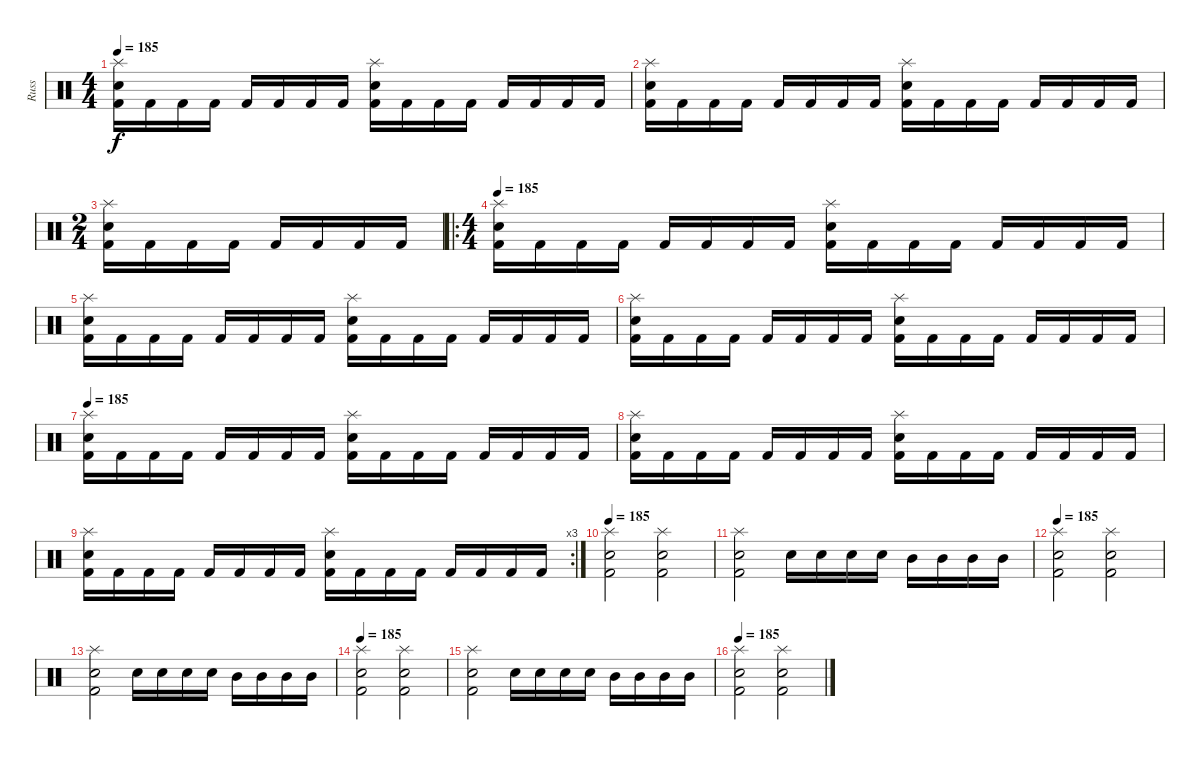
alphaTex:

\track ("Russ" "Russ") {instrument percussion}
\staff {score}
\articulation defaults
\ts (4 4)
\tempo 185
\clef neutral
\ks c
("Kick (hit) 2" "Snare (hit) 2" "Splash (hit)").16{dy f} "Kick (hit) 2".16 "Kick (hit) 2".16 "Kick (hit) 2".16 "Kick (hit) 2".16 "Kick (hit) 2".16 "Kick (hit) 2".16 "Kick (hit) 2".16 ("Kick (hit) 2" "Snare (hit) 2" "Splash (hit)").16 "Kick (hit) 2".16 "Kick (hit) 2".16 "Kick (hit) 2".16 "Kick (hit) 2".16 "Kick (hit) 2".16 "Kick (hit) 2".16 "Kick (hit) 2".16 |
("Kick (hit) 2" "Snare (hit) 2" "Splash (hit)").16 "Kick (hit) 2".16 "Kick (hit) 2".16 "Kick (hit) 2".16 "Kick (hit) 2".16 "Kick (hit) 2".16 "Kick (hit) 2".16 "Kick (hit) 2".16 ("Kick (hit) 2" "Snare (hit) 2" "Splash (hit)").16 "Kick (hit) 2".16 "Kick (hit) 2".16 "Kick (hit) 2".16 "Kick (hit) 2".16 "Kick (hit) 2".16 "Kick (hit) 2".16 "Kick (hit) 2".16 |
\ts (2 4)
("Kick (hit) 2" "Snare (hit) 2" "Splash (hit)").16 "Kick (hit) 2".16 "Kick (hit) 2".16 "Kick (hit) 2".16 "Kick (hit) 2".16 "Kick (hit) 2".16 "Kick (hit) 2".16 "Kick (hit) 2".16 |
\ro
\ts (4 4)
\tempo 185
("Kick (hit) 2" "Snare (hit) 2" "Splash (hit)").16 "Kick (hit) 2".16 "Kick (hit) 2".16 "Kick (hit) 2".16 "Kick (hit) 2".16 "Kick (hit) 2".16 "Kick (hit) 2".16 "Kick (hit) 2".16 ("Kick (hit) 2" "Snare (hit) 2" "Splash (hit)").16 "Kick (hit) 2".16 "Kick (hit) 2".16 "Kick (hit) 2".16 "Kick (hit) 2".16 "Kick (hit) 2".16 "Kick (hit) 2".16 "Kick (hit) 2".16 |
("Kick (hit) 2" "Snare (hit) 2" "Splash (hit)").16 "Kick (hit) 2".16 "Kick (hit) 2".16 "Kick (hit) 2".16 "Kick (hit) 2".16 "Kick (hit) 2".16 "Kick (hit) 2".16 "Kick (hit) 2".16 ("Kick (hit) 2" "Snare (hit) 2" "Splash (hit)").16 "Kick (hit) 2".16 "Kick (hit) 2".16 "Kick (hit) 2".16 "Kick (hit) 2".16 "Kick (hit) 2".16 "Kick (hit) 2".16 "Kick (hit) 2".16 |
("Kick (hit) 2" "Snare (hit) 2" "Splash (hit)").16 "Kick (hit) 2".16 "Kick (hit) 2".16 "Kick (hit) 2".16 "Kick (hit) 2".16 "Kick (hit) 2".16 "Kick (hit) 2".16 "Kick (hit) 2".16 ("Kick (hit) 2" "Snare (hit) 2" "Splash (hit)").16 "Kick (hit) 2".16 "Kick (hit) 2".16 "Kick (hit) 2".16 "Kick (hit) 2".16 "Kick (hit) 2".16 "Kick (hit) 2".16 "Kick (hit) 2".16 |
\tempo 185
("Kick (hit) 2" "Snare (hit) 2" "Splash (hit)").16 "Kick (hit) 2".16 "Kick (hit) 2".16 "Kick (hit) 2".16 "Kick (hit) 2".16 "Kick (hit) 2".16 "Kick (hit) 2".16 "Kick (hit) 2".16 ("Kick (hit) 2" "Snare (hit) 2" "Splash (hit)").16 "Kick (hit) 2".16 "Kick (hit) 2".16 "Kick (hit) 2".16 "Kick (hit) 2".16 "Kick (hit) 2".16 "Kick (hit) 2".16 "Kick (hit) 2".16 |
("Kick (hit) 2" "Snare (hit) 2" "Splash (hit)").16 "Kick (hit) 2".16 "Kick (hit) 2".16 "Kick (hit) 2".16 "Kick (hit) 2".16 "Kick (hit) 2".16 "Kick (hit) 2".16 "Kick (hit) 2".16 ("Kick (hit) 2" "Snare (hit) 2" "Splash (hit)").16 "Kick (hit) 2".16 "Kick (hit) 2".16 "Kick (hit) 2".16 "Kick (hit) 2".16 "Kick (hit) 2".16 "Kick (hit) 2".16 "Kick (hit) 2".16 |
\rc 3
("Kick (hit) 2" "Snare (hit) 2" "Splash (hit)").16 "Kick (hit) 2".16 "Kick (hit) 2".16 "Kick (hit) 2".16 "Kick (hit) 2".16 "Kick (hit) 2".16 "Kick (hit) 2".16 "Kick (hit) 2".16 ("Kick (hit) 2" "Snare (hit) 2" "Splash (hit)").16 "Kick (hit) 2".16 "Kick (hit) 2".16 "Kick (hit) 2".16 "Kick (hit) 2".16 "Kick (hit) 2".16 "Kick (hit) 2".16 "Kick (hit) 2".16 |
\tempo 185
("Kick (hit) 2" "Snare (hit) 2" "Splash (hit)").2 ("Kick (hit) 2" "Snare (hit) 2" "Splash (hit)").2 |
("Kick (hit) 2" "Snare (hit) 2" "Splash (hit)").2 "Snare (hit) 2".16 "Snare (hit) 2".16 "Snare (hit) 2".16 "Snare (hit) 2".16 "Mid Tom (hit)".16 "Mid Tom (hit)".16 "Mid Tom (hit)".16 "Mid Tom (hit)".16 |
\tempo 185
("Kick (hit) 2" "Snare (hit) 2" "Splash (hit)").2 ("Kick (hit) 2" "Snare (hit) 2" "Splash (hit)").2 |
("Kick (hit) 2" "Snare (hit) 2" "Splash (hit)").2 "Snare (hit) 2".16 "Snare (hit) 2".16 "Snare (hit) 2".16 "Snare (hit) 2".16 "Mid Tom (hit)".16 "Mid Tom (hit)".16 "Mid Tom (hit)".16 "Mid Tom (hit)".16 |
\tempo 185
("Kick (hit) 2" "Snare (hit) 2" "Splash (hit)").2 ("Kick (hit) 2" "Snare (hit) 2" "Splash (hit)").2 |
("Kick (hit) 2" "Snare (hit) 2" "Splash (hit)").2 "Snare (hit) 2".16 "Snare (hit) 2".16 "Snare (hit) 2".16 "Snare (hit) 2".16 "Mid Tom (hit)".16 "Mid Tom (hit)".16 "Mid Tom (hit)".16 "Mid Tom (hit)".16 |
\tempo 185
("Kick (hit) 2" "Snare (hit) 2" "Splash (hit)").2 ("Kick (hit) 2" "Snare (hit) 2" "Splash (hit)").2
